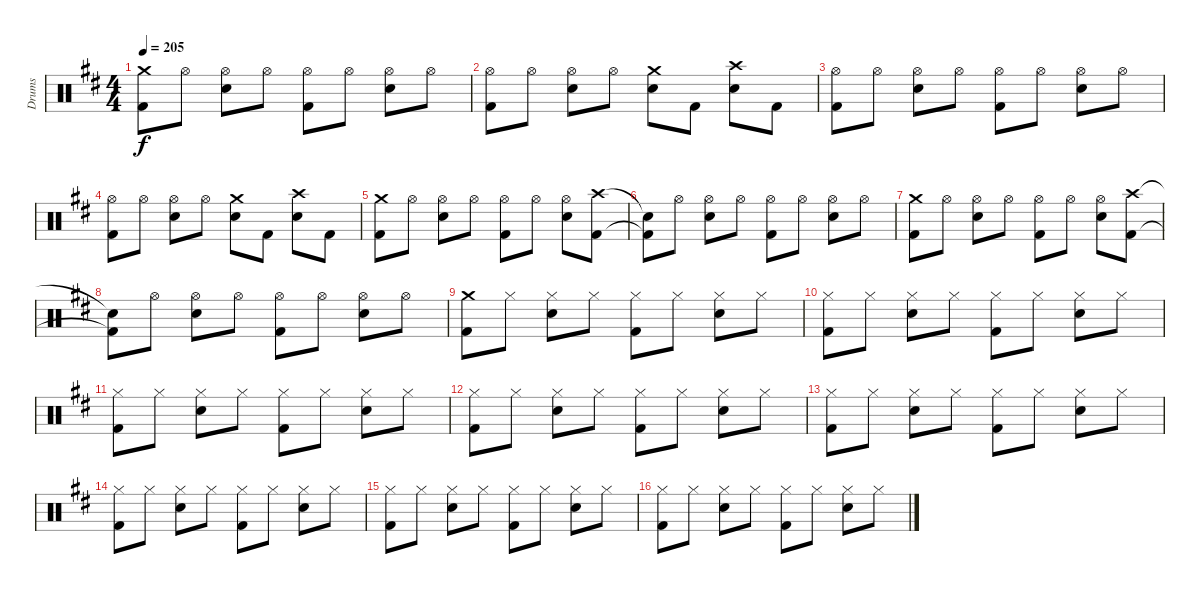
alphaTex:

\track ("Drums" "Drums") {instrument percussion}
\staff {score}
\articulation defaults
\ts (4 4)
\tempo 205
\clef neutral
\ks d
("Crash medium (hit)" "Kick (hit) 2").8{dy f} "Hi-Hat (open)".8 ("Hi-Hat (open)" "Snare (hit) 2").8 "Hi-Hat (open)".8 ("Hi-Hat (open)" "Kick (hit) 2").8 "Hi-Hat (open)".8 ("Hi-Hat (open)" "Snare (hit) 2").8 "Hi-Hat (open)".8 |
("Hi-Hat (open)" "Kick (hit) 2").8 "Hi-Hat (open)".8 ("Hi-Hat (open)" "Snare (hit) 2").8 "Hi-Hat (open)".8 ("Crash medium (hit)" "Snare (hit) 2").8 "Kick (hit) 2".8 ("Crash high (hit)" "Snare (hit) 2").8 "Kick (hit) 2".8 |
("Hi-Hat (open)" "Kick (hit) 2").8 "Hi-Hat (open)".8 ("Hi-Hat (open)" "Snare (hit) 2").8 "Hi-Hat (open)".8 ("Hi-Hat (open)" "Kick (hit) 2").8 "Hi-Hat (open)".8 ("Hi-Hat (open)" "Snare (hit) 2").8 "Hi-Hat (open)".8 |
("Hi-Hat (open)" "Kick (hit) 2").8 "Hi-Hat (open)".8 ("Hi-Hat (open)" "Snare (hit) 2").8 "Hi-Hat (open)".8 ("Crash medium (hit)" "Snare (hit) 2").8 "Kick (hit) 2".8 ("Crash high (hit)" "Snare (hit) 2").8 "Kick (hit) 2".8 |
("Crash medium (hit)" "Kick (hit) 2").8 "Hi-Hat (open)".8 ("Hi-Hat (open)" "Snare (hit) 2").8 "Hi-Hat (open)".8 ("Hi-Hat (open)" "Kick (hit) 2").8 "Hi-Hat (open)".8 ("Hi-Hat (open)" "Snare (hit) 2").8 ("Crash high (hit)" "Kick (hit) 2").8 |
("Snare (hit)"{t} "Kick (hit) 2"{t}).8 "Hi-Hat (open)".8 ("Hi-Hat (open)" "Snare (hit) 2").8 "Hi-Hat (open)".8 ("Hi-Hat (open)" "Kick (hit) 2").8 "Hi-Hat (open)".8 ("Hi-Hat (open)" "Snare (hit) 2").8 "Hi-Hat (open)".8 |
("Crash medium (hit)" "Kick (hit) 2").8 "Hi-Hat (open)".8 ("Hi-Hat (open)" "Snare (hit) 2").8 "Hi-Hat (open)".8 ("Hi-Hat (open)" "Kick (hit) 2").8 "Hi-Hat (open)".8 ("Hi-Hat (open)" "Snare (hit) 2").8 ("Crash high (hit)" "Kick (hit) 2").8 |
("Snare (hit)"{t} "Kick (hit) 2"{t}).8 "Hi-Hat (open)".8 ("Hi-Hat (open)" "Snare (hit) 2").8 "Hi-Hat (open)".8 ("Hi-Hat (open)" "Kick (hit) 2").8 "Hi-Hat (open)".8 ("Hi-Hat (open)" "Snare (hit) 2").8 "Hi-Hat (open)".8 |
("Crash medium (hit)" "Kick (hit) 2").8 "Hi-Hat (closed)".8 ("Hi-Hat (closed)" "Snare (hit) 2").8 "Hi-Hat (closed)".8 ("Hi-Hat (closed)" "Kick (hit) 2").8 "Hi-Hat (closed)".8 ("Hi-Hat (closed)" "Snare (hit) 2").8 "Hi-Hat (closed)".8 |
("Hi-Hat (closed)" "Kick (hit) 2").8 "Hi-Hat (closed)".8 ("Hi-Hat (closed)" "Snare (hit) 2").8 "Hi-Hat (closed)".8 ("Hi-Hat (closed)" "Kick (hit) 2").8 "Hi-Hat (closed)".8 ("Hi-Hat (closed)" "Snare (hit) 2").8 "Hi-Hat (closed)".8 |
("Hi-Hat (closed)" "Kick (hit) 2").8 "Hi-Hat (closed)".8 ("Hi-Hat (closed)" "Snare (hit) 2").8 "Hi-Hat (closed)".8 ("Hi-Hat (closed)" "Kick (hit) 2").8 "Hi-Hat (closed)".8 ("Hi-Hat (closed)" "Snare (hit) 2").8 "Hi-Hat (closed)".8 |
("Hi-Hat (closed)" "Kick (hit) 2").8 "Hi-Hat (closed)".8 ("Hi-Hat (closed)" "Snare (hit) 2").8 "Hi-Hat (closed)".8 ("Hi-Hat (closed)" "Kick (hit) 2").8 "Hi-Hat (closed)".8 ("Hi-Hat (closed)" "Snare (hit) 2").8 "Hi-Hat (closed)".8 |
("Hi-Hat (closed)" "Kick (hit) 2").8 "Hi-Hat (closed)".8 ("Hi-Hat (closed)" "Snare (hit) 2").8 "Hi-Hat (closed)".8 ("Hi-Hat (closed)" "Kick (hit) 2").8 "Hi-Hat (closed)".8 ("Hi-Hat (closed)" "Snare (hit) 2").8 "Hi-Hat (closed)".8 |
("Hi-Hat (closed)" "Kick (hit) 2").8 "Hi-Hat (closed)".8 ("Hi-Hat (closed)" "Snare (hit) 2").8 "Hi-Hat (closed)".8 ("Hi-Hat (closed)" "Kick (hit) 2").8 "Hi-Hat (closed)".8 ("Hi-Hat (closed)" "Snare (hit) 2").8 "Hi-Hat (closed)".8 |
("Hi-Hat (closed)" "Kick (hit) 2").8 "Hi-Hat (closed)".8 ("Hi-Hat (closed)" "Snare (hit) 2").8 "Hi-Hat (closed)".8 ("Hi-Hat (closed)" "Kick (hit) 2").8 "Hi-Hat (closed)".8 ("Hi-Hat (closed)" "Snare (hit) 2").8 "Hi-Hat (closed)".8 |
("Hi-Hat (closed)" "Kick (hit) 2").8 "Hi-Hat (closed)".8 ("Hi-Hat (closed)" "Snare (hit) 2").8 "Hi-Hat (closed)".8 ("Hi-Hat (closed)" "Kick (hit) 2").8 "Hi-Hat (closed)".8 ("Hi-Hat (closed)" "Snare (hit) 2").8 "Hi-Hat (closed)".8
